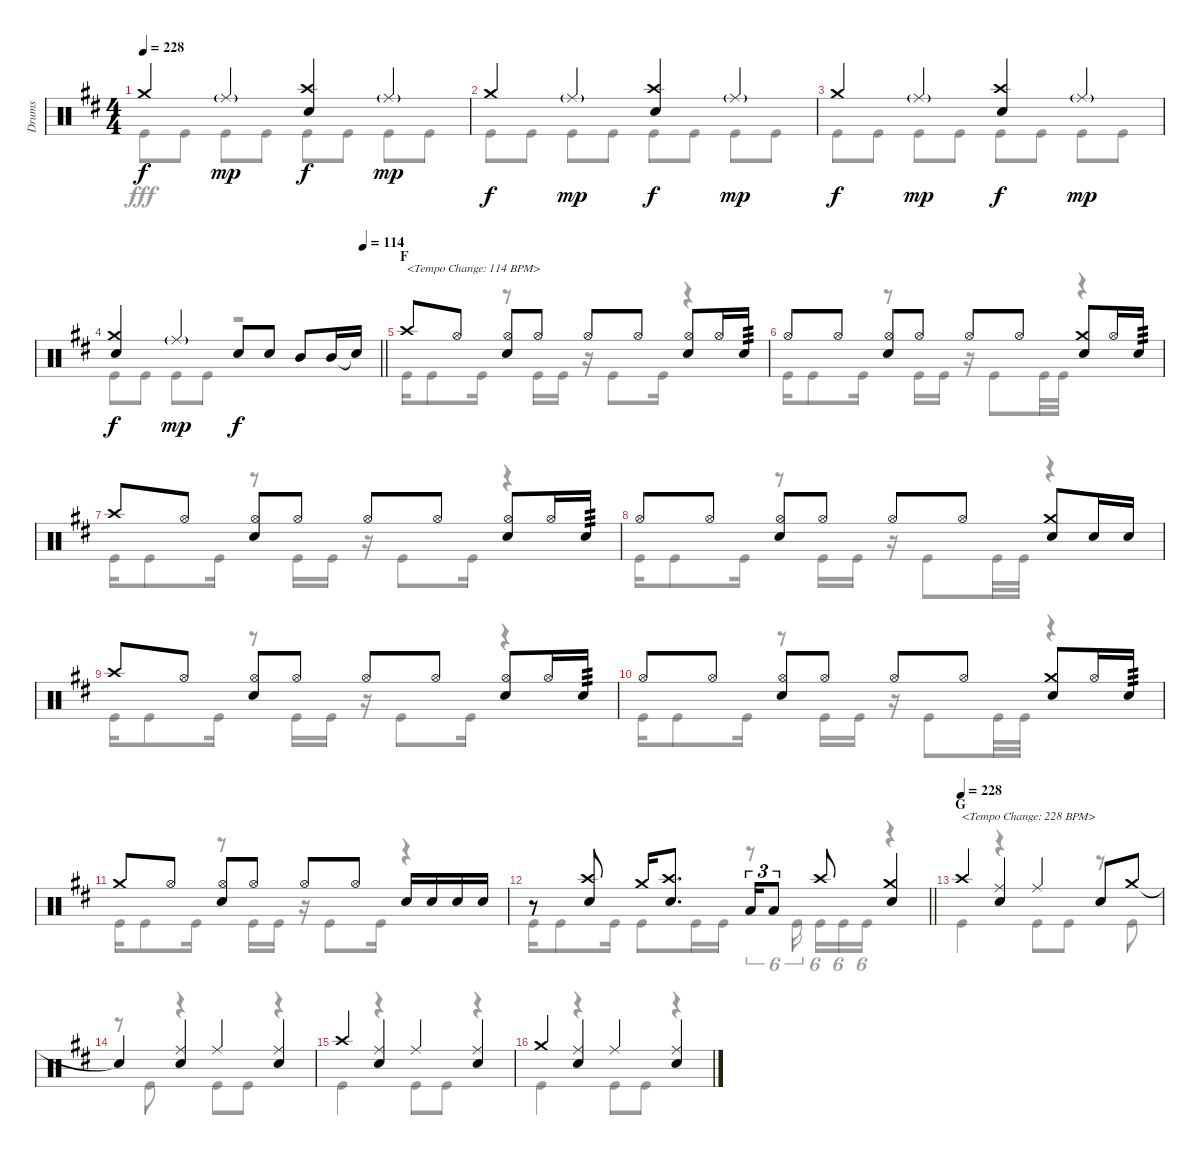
\track ("Drums" "Drums") {instrument percussion}
\staff {score}
\articulation defaults
\voice
\ts (4 4)
\tempo 228
\clef neutral
\ks d "Crash medium (hit)".4{dy f} "Ride (middle)"{g}.4{dy mp}
("Crash high (hit)" "Snare (hit) 2").4{dy f} "Ride (middle)"{g}.4{dy mp} |
"Crash medium (hit)".4{dy f} "Ride (middle)"{g}.4{dy mp} ("Crash high (hit)" "Snare (hit) 2").4{dy f} "Ride (middle)"{g}.4{dy mp} |
"Crash medium (hit)".4{dy f} "Ride (middle)"{g}.4{dy mp} ("Crash high (hit)" "Snare (hit) 2").4{dy f} "Ride (middle)"{g}.4{dy mp} |
\tempo (114 0.9375)
\barLineRight lightlight
("Crash medium (hit)" "Snare (hit) 2").4{dy f} "Ride (middle)"{g}.4{dy mp} "Snare (hit) 2".8{dy f} "Snare (hit) 2".8 "Mid Tom (hit)".8 "Mid Tom (hit)".16 "Snare (hit)"{t}.16 |
\section ("" "F")
"Crash high (hit)".8{txt "<Tempo Change: 114 BPM>"} "Hi-Hat (open)".8 ("Hi-Hat (open)" "Snare (hit) 2").8 "Hi-Hat (open)".8 "Hi-Hat (open)".8 "Hi-Hat (open)".8 ("Hi-Hat (open)" "Snare (hit) 2").8 "Hi-Hat (open)".16 "Snare (hit) 2".16{tp 3} |
"Hi-Hat (open)".8 "Hi-Hat (open)".8 ("Hi-Hat (open)" "Snare (hit) 2").8 "Hi-Hat (open)".8 "Hi-Hat (open)".8 "Hi-Hat (open)".8 ("Crash medium (hit)" "Snare (hit) 2").8 "Hi-Hat (open)".16 "Snare (hit) 2".16{tp 3} |
"Crash high (hit)".8 "Hi-Hat (open)".8 ("Hi-Hat (open)" "Snare (hit) 2").8 "Hi-Hat (open)".8 "Hi-Hat (open)".8 "Hi-Hat (open)".8 ("Hi-Hat (open)" "Snare (hit) 2").8 "Hi-Hat (open)".16 "Snare (hit) 2".16{tp 3} |
"Hi-Hat (open)".8 "Hi-Hat (open)".8 ("Hi-Hat (open)" "Snare (hit) 2").8 "Hi-Hat (open)".8 "Hi-Hat (open)".8 "Hi-Hat (open)".8 ("Crash medium (hit)" "Snare (hit) 2").8 "Snare (hit) 2".16 "Snare (hit) 2".16 |
"Crash high (hit)".8 "Hi-Hat (open)".8 ("Hi-Hat (open)" "Snare (hit) 2").8 "Hi-Hat (open)".8 "Hi-Hat (open)".8 "Hi-Hat (open)".8 ("Hi-Hat (open)" "Snare (hit) 2").8 "Hi-Hat (open)".16 "Snare (hit) 2".16{tp 3} |
"Hi-Hat (open)".8 "Hi-Hat (open)".8 ("Hi-Hat (open)" "Snare (hit) 2").8 "Hi-Hat (open)".8 "Hi-Hat (open)".8 "Hi-Hat (open)".8 ("Crash medium (hit)" "Snare (hit) 2").8 "Hi-Hat (open)".16 "Snare (hit) 2".16{tp 3} |
"Crash medium (hit)".8 "Hi-Hat (open)".8 ("Hi-Hat (open)" "Snare (hit) 2").8 "Hi-Hat (open)".8 "Hi-Hat (open)".8 "Hi-Hat (open)".8 "Snare (hit) 2".16 "Snare (hit) 2".16 "Snare (hit) 2".16 "Snare (hit) 2".16 |
\barLineRight lightlight
r.8 ("Crash high (hit)" "Snare (hit) 2").8 "Crash medium (hit)".16 ("Crash high (hit)" "Snare (hit) 2").8{d} "Low Tom (hit)".16{tu (3 2)} "Low Tom (hit)".8{tu (3 2)} "Crash high (hit)".8 ("Crash medium (hit)" "Snare (hit) 2").4 |
\section ("" "G")
\tempo (228)
"Crash high (hit)".4{txt "<Tempo Change: 228 BPM>"} ("Ride (middle)" "Snare (hit) 2").4 "Ride (middle)".4 "Snare (hit) 2".8 "Crash medium (hit)".8 |
"Snare (hit)"{t}.4 ("Ride (middle)" "Snare (hit) 2").4 "Ride (middle)".4 ("Ride (middle)" "Snare (hit) 2").4 |
"Crash high (hit)".4 ("Ride (middle)" "Snare (hit) 2").4 "Ride (middle)".4 ("Ride (middle)" "Snare (hit) 2").4 |
"Crash medium (hit)".4 ("Ride (middle)" "Snare (hit) 2").4 "Ride (middle)".4 ("Ride (middle)" "Snare (hit) 2").4
\voice
\clef neutral
\ottava regular
\simile none
\ks d "Kick (hit)".8{dy fff} "Kick (hit)".8 "Kick (hit)".8 "Kick (hit)".8 "Kick (hit)".8 "Kick (hit)".8 "Kick (hit)".8 "Kick (hit)".8
|
"Kick (hit)".8 "Kick (hit)".8 "Kick (hit)".8 "Kick (hit)".8 "Kick (hit)".8 "Kick (hit)".8 "Kick (hit)".8 "Kick (hit)".8 |
"Kick (hit)".8 "Kick (hit)".8 "Kick (hit)".8 "Kick (hit)".8 "Kick (hit)".8 "Kick (hit)".8 "Kick (hit)".8 "Kick (hit)".8 |
\barLineRight lightlight "Kick (hit)".8 "Kick (hit)".8 "Kick (hit)".8 "Kick (hit)".8
r.2 |
"Kick (hit)".16 "Kick (hit)".8 "Kick (hit)".16 r.8 "Kick (hit)".16 "Kick (hit)".16 r.16 "Kick (hit)".8 "Kick (hit)".16 r.4 |
"Kick (hit)".16 "Kick (hit)".8 "Kick (hit)".16 r.8 "Kick (hit)".16 "Kick (hit)".16 r.16 "Kick (hit)".8 "Kick (hit)".32 "Kick (hit)".32 r.4 |
"Kick (hit)".16 "Kick (hit)".8 "Kick (hit)".16 r.8 "Kick (hit)".16 "Kick (hit)".16 r.16 "Kick (hit)".8 "Kick (hit)".16 r.4 |
"Kick (hit)".16 "Kick (hit)".8 "Kick (hit)".16 r.8 "Kick (hit)".16 "Kick (hit)".16 r.16 "Kick (hit)".8 "Kick (hit)".32 "Kick (hit)".32 r.4 |
"Kick (hit)".16 "Kick (hit)".8 "Kick (hit)".16 r.8 "Kick (hit)".16 "Kick (hit)".16 r.16 "Kick (hit)".8 "Kick (hit)".16 r.4 |
"Kick (hit)".16 "Kick (hit)".8 "Kick (hit)".16 r.8 "Kick (hit)".16 "Kick (hit)".16 r.16 "Kick (hit)".8 "Kick (hit)".32 "Kick (hit)".32 r.4 |
"Kick (hit)".16 "Kick (hit)".8 "Kick (hit)".16 r.8 "Kick (hit)".16 "Kick (hit)".16 r.16 "Kick (hit)".8 "Kick (hit)".16 r.4 |
\barLineRight lightlight "Kick (hit)".16 "Kick (hit)".8 "Kick (hit)".16 "Kick (hit)".8 "Kick (hit)".16 "Kick (hit)".16
r.8{tu (6 4)} "Kick (hit)".16{tu (6 4) beam splitsecondary} "Kick (hit)".16{tu (6 4)} "Kick (hit)".16{tu (6 4)} "Kick (hit)".16{tu (6 4)} r.4 |
"Kick (hit)".4 r.4 "Kick (hit)".8 "Kick (hit)".8 r.8 "Kick (hit)".8 |
r.8 "Kick (hit)".8 r.4 "Kick (hit)".8 "Kick (hit)".8 r.4 |
"Kick (hit)".4 r.4 "Kick (hit)".8 "Kick (hit)".8 r.4 |
"Kick (hit)".4 r.4 "Kick (hit)".8 "Kick (hit)".8 r.4
